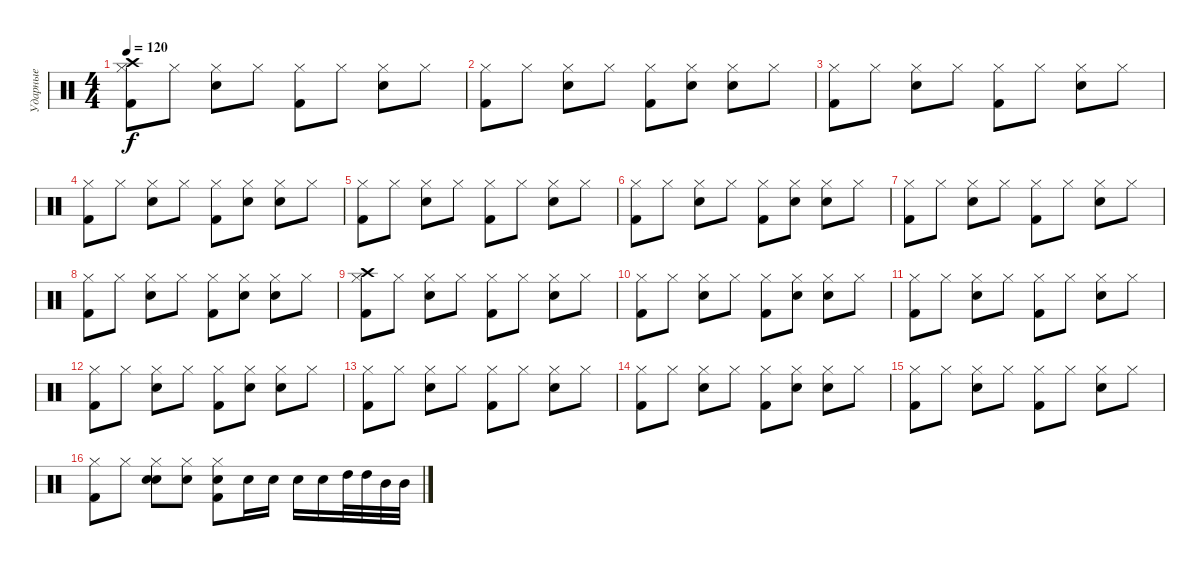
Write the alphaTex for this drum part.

\track ("Ударные" "Ударные") {instrument percussion}
\staff
\articulation defaults
\ts (4 4)
\tempo 120
\clef neutral
\ks c
("Hi-Hat (closed)" "Kick (hit) 2" "Crash high (hit)").8{dy f} "Hi-Hat (closed)".8 ("Hi-Hat (closed)" "Snare (hit) 2").8 "Hi-Hat (closed)".8 ("Hi-Hat (closed)" "Kick (hit) 2").8 "Hi-Hat (closed)".8 ("Hi-Hat (closed)" "Snare (hit) 2").8 "Hi-Hat (closed)".8 |
("Hi-Hat (closed)" "Kick (hit) 2").8 "Hi-Hat (closed)".8 ("Hi-Hat (closed)" "Snare (hit) 2").8 "Hi-Hat (closed)".8 ("Hi-Hat (closed)" "Kick (hit) 2").8 ("Hi-Hat (closed)" "Snare (hit) 2").8 ("Hi-Hat (closed)" "Snare (hit) 2").8 "Hi-Hat (closed)".8 |
("Hi-Hat (closed)" "Kick (hit) 2").8 "Hi-Hat (closed)".8 ("Hi-Hat (closed)" "Snare (hit) 2").8 "Hi-Hat (closed)".8 ("Hi-Hat (closed)" "Kick (hit) 2").8 "Hi-Hat (closed)".8 ("Hi-Hat (closed)" "Snare (hit) 2").8 "Hi-Hat (closed)".8 |
("Hi-Hat (closed)" "Kick (hit) 2").8 "Hi-Hat (closed)".8 ("Hi-Hat (closed)" "Snare (hit) 2").8 "Hi-Hat (closed)".8 ("Hi-Hat (closed)" "Kick (hit) 2").8 ("Hi-Hat (closed)" "Snare (hit) 2").8 ("Hi-Hat (closed)" "Snare (hit) 2").8 "Hi-Hat (closed)".8 |
("Hi-Hat (closed)" "Kick (hit) 2").8 "Hi-Hat (closed)".8 ("Hi-Hat (closed)" "Snare (hit) 2").8 "Hi-Hat (closed)".8 ("Hi-Hat (closed)" "Kick (hit) 2").8 "Hi-Hat (closed)".8 ("Hi-Hat (closed)" "Snare (hit) 2").8 "Hi-Hat (closed)".8 |
("Hi-Hat (closed)" "Kick (hit) 2").8 "Hi-Hat (closed)".8 ("Hi-Hat (closed)" "Snare (hit) 2").8 "Hi-Hat (closed)".8 ("Hi-Hat (closed)" "Kick (hit) 2").8 ("Hi-Hat (closed)" "Snare (hit) 2").8 ("Hi-Hat (closed)" "Snare (hit) 2").8 "Hi-Hat (closed)".8 |
("Hi-Hat (closed)" "Kick (hit) 2").8 "Hi-Hat (closed)".8 ("Hi-Hat (closed)" "Snare (hit) 2").8 "Hi-Hat (closed)".8 ("Hi-Hat (closed)" "Kick (hit) 2").8 "Hi-Hat (closed)".8 ("Hi-Hat (closed)" "Snare (hit) 2").8 "Hi-Hat (closed)".8 |
("Hi-Hat (closed)" "Kick (hit) 2").8 "Hi-Hat (closed)".8 ("Hi-Hat (closed)" "Snare (hit) 2").8 "Hi-Hat (closed)".8 ("Hi-Hat (closed)" "Kick (hit) 2").8 ("Hi-Hat (closed)" "Snare (hit) 2").8 ("Hi-Hat (closed)" "Snare (hit) 2").8 "Hi-Hat (closed)".8 |
("Hi-Hat (closed)" "Kick (hit) 2" "Crash high (hit)").8 "Hi-Hat (closed)".8 ("Hi-Hat (closed)" "Snare (hit) 2").8 "Hi-Hat (closed)".8 ("Hi-Hat (closed)" "Kick (hit) 2").8 "Hi-Hat (closed)".8 ("Hi-Hat (closed)" "Snare (hit) 2").8 "Hi-Hat (closed)".8 |
("Hi-Hat (closed)" "Kick (hit) 2").8 "Hi-Hat (closed)".8 ("Hi-Hat (closed)" "Snare (hit) 2").8 "Hi-Hat (closed)".8 ("Hi-Hat (closed)" "Kick (hit) 2").8 ("Hi-Hat (closed)" "Snare (hit) 2").8 ("Hi-Hat (closed)" "Snare (hit) 2").8 "Hi-Hat (closed)".8 |
("Hi-Hat (closed)" "Kick (hit) 2").8 "Hi-Hat (closed)".8 ("Hi-Hat (closed)" "Snare (hit) 2").8 "Hi-Hat (closed)".8 ("Hi-Hat (closed)" "Kick (hit) 2").8 "Hi-Hat (closed)".8 ("Hi-Hat (closed)" "Snare (hit) 2").8 "Hi-Hat (closed)".8 |
("Hi-Hat (closed)" "Kick (hit) 2").8 "Hi-Hat (closed)".8 ("Hi-Hat (closed)" "Snare (hit) 2").8 "Hi-Hat (closed)".8 ("Hi-Hat (closed)" "Kick (hit) 2").8 ("Hi-Hat (closed)" "Snare (hit) 2").8 ("Hi-Hat (closed)" "Snare (hit) 2").8 "Hi-Hat (closed)".8 |
("Hi-Hat (closed)" "Kick (hit) 2").8 "Hi-Hat (closed)".8 ("Hi-Hat (closed)" "Snare (hit) 2").8 "Hi-Hat (closed)".8 ("Hi-Hat (closed)" "Kick (hit) 2").8 "Hi-Hat (closed)".8 ("Hi-Hat (closed)" "Snare (hit) 2").8 "Hi-Hat (closed)".8 |
("Hi-Hat (closed)" "Kick (hit) 2").8 "Hi-Hat (closed)".8 ("Hi-Hat (closed)" "Snare (hit) 2").8 "Hi-Hat (closed)".8 ("Hi-Hat (closed)" "Kick (hit) 2").8 ("Hi-Hat (closed)" "Snare (hit) 2").8 ("Hi-Hat (closed)" "Snare (hit) 2").8 "Hi-Hat (closed)".8 |
("Hi-Hat (closed)" "Kick (hit) 2").8 "Hi-Hat (closed)".8 ("Hi-Hat (closed)" "Snare (hit) 2").8 "Hi-Hat (closed)".8 ("Hi-Hat (closed)" "Kick (hit) 2").8 "Hi-Hat (closed)".8 ("Hi-Hat (closed)" "Snare (hit) 2").8 "Hi-Hat (closed)".8 |
("Hi-Hat (closed)" "Kick (hit) 2").8 "Hi-Hat (closed)".8 ("Hi-Hat (closed)" "Snare (hit) 2" "Snare (hit) 2").8 ("Hi-Hat (closed)" "Snare (hit) 2").8 ("Hi-Hat (closed)" "Snare (hit) 2" "Kick (hit) 2").8 "Snare (hit) 2".16 "Snare (hit) 2".16 "Snare (hit) 2".16 "Snare (hit) 2".16 "High Tom (hit)".32 "High Tom (hit)".32 "Mid Tom (hit)".32 "Mid Tom (hit)".32
